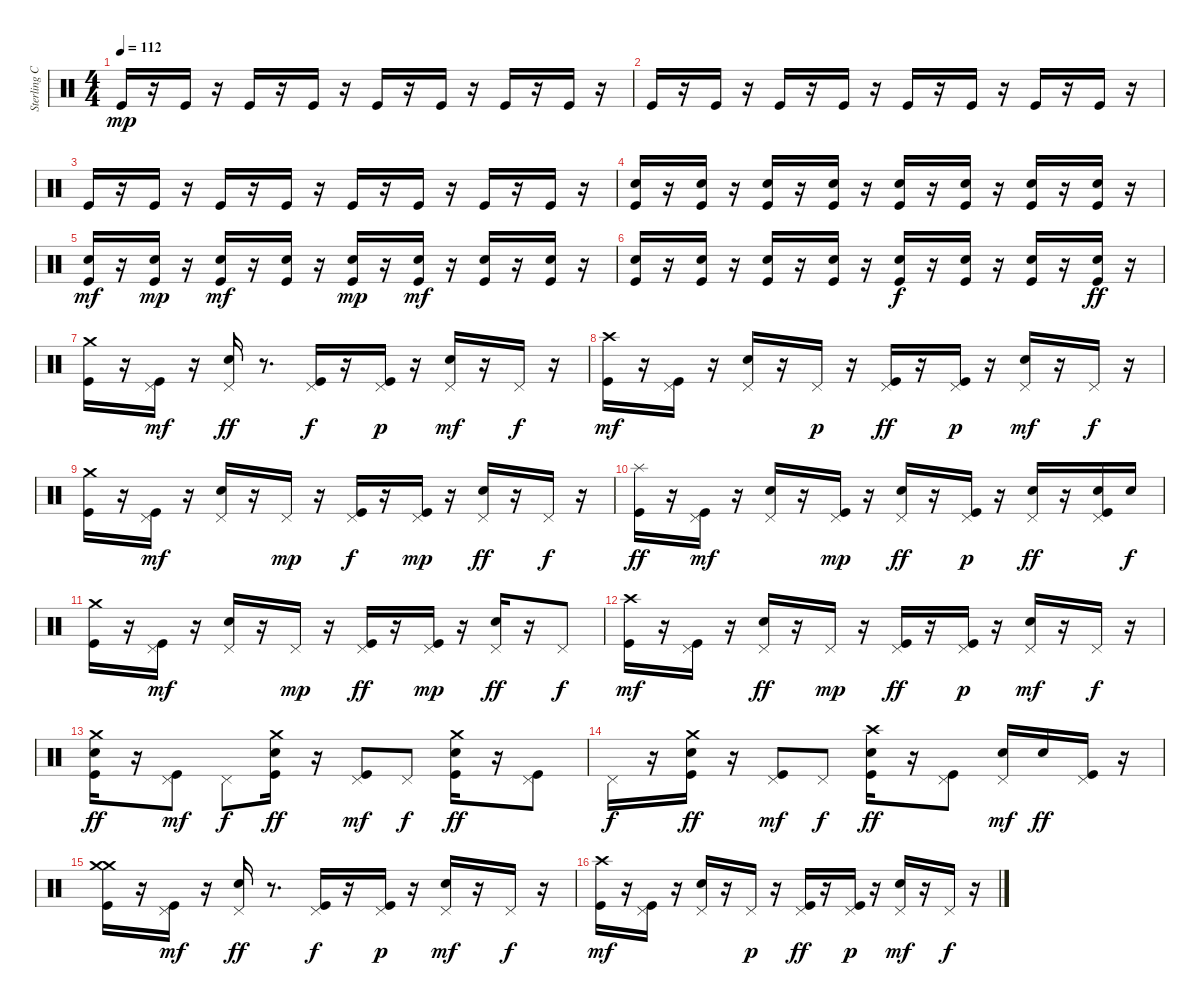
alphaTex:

\track ("Sterling Campbell" "Sterling C") {instrument percussion}
\staff {score}
\articulation defaults
\ts (4 4)
\tempo 112
\clef neutral
\ks c "Kick (hit)".16{dy mp}
r.16 "Kick (hit)".16 r.16 "Kick (hit)".16 r.16 "Kick (hit)".16 r.16 "Kick (hit)".16 r.16 "Kick (hit)".16 r.16 "Kick (hit)".16 r.16 "Kick (hit)".16 r.16 |
"Kick (hit)".16 r.16 "Kick (hit)".16 r.16 "Kick (hit)".16 r.16 "Kick (hit)".16 r.16 "Kick (hit)".16 r.16 "Kick (hit)".16 r.16 "Kick (hit)".16 r.16 "Kick (hit)".16 r.16 |
"Kick (hit)".16 r.16 "Kick (hit)".16 r.16 "Kick (hit)".16 r.16 "Kick (hit)".16 r.16 "Kick (hit)".16 r.16 "Kick (hit)".16 r.16 "Kick (hit)".16 r.16 "Kick (hit)".16 r.16 |
("Electric Snare (hit)" "Kick (hit)").16 r.16 ("Electric Snare (hit)" "Kick (hit)").16 r.16 ("Electric Snare (hit)" "Kick (hit)").16 r.16 ("Electric Snare (hit)" "Kick (hit)").16 r.16 ("Electric Snare (hit)" "Kick (hit)").16 r.16 ("Electric Snare (hit)" "Kick (hit)").16 r.16 ("Electric Snare (hit)" "Kick (hit)").16 r.16 ("Electric Snare (hit)" "Kick (hit)").16 r.16 |
("Electric Snare (hit)" "Kick (hit)").16{dy mf} r.16 ("Electric Snare (hit)" "Kick (hit)").16{dy mp} r.16 ("Electric Snare (hit)" "Kick (hit)").16{dy mf} r.16 ("Electric Snare (hit)" "Kick (hit)").16 r.16 ("Electric Snare (hit)" "Kick (hit)").16{dy mp} r.16 ("Electric Snare (hit)" "Kick (hit)").16{dy mf} r.16 ("Electric Snare (hit)" "Kick (hit)").16 r.16 ("Electric Snare (hit)" "Kick (hit)").16 r.16 |
("Electric Snare (hit)" "Kick (hit)").16 r.16 ("Electric Snare (hit)" "Kick (hit)").16 r.16 ("Electric Snare (hit)" "Kick (hit)").16 r.16 ("Electric Snare (hit)" "Kick (hit)").16 r.16 ("Electric Snare (hit)" "Kick (hit)").16{dy f} r.16 ("Electric Snare (hit)" "Kick (hit)").16 r.16 ("Electric Snare (hit)" "Kick (hit)").16 r.16 ("Electric Snare (hit)" "Kick (hit)").16{dy ff} r.16 |
("Kick (hit)" "Crash medium (hit)").16 r.16 ("Kick (hit)" "Pedal Hi-Hat (hit)").16{dy mf} r.16 ("Electric Snare (hit)" "Pedal Hi-Hat (hit)").16{dy ff} r.8{d} ("Kick (hit)" "Pedal Hi-Hat (hit)").16{dy f} r.16 ("Kick (hit)" "Pedal Hi-Hat (hit)").16{dy p} r.16 ("Electric Snare (hit)" "Pedal Hi-Hat (hit)").16{dy mf} r.16 "Pedal Hi-Hat (hit)".16{dy f} r.16 |
("Kick (hit)" "Crash high (hit)").16{dy mf} r.16 ("Kick (hit)" "Pedal Hi-Hat (hit)").16 r.16 ("Electric Snare (hit)" "Pedal Hi-Hat (hit)").16 r.16 "Pedal Hi-Hat (hit)".16{dy p} r.16 ("Kick (hit)" "Pedal Hi-Hat (hit)").16{dy ff} r.16 ("Kick (hit)" "Pedal Hi-Hat (hit)").16{dy p} r.16 ("Electric Snare (hit)" "Pedal Hi-Hat (hit)").16{dy mf} r.16 "Pedal Hi-Hat (hit)".16{dy f} r.16 |
("Kick (hit)" "Crash medium (hit)").16 r.16 ("Kick (hit)" "Pedal Hi-Hat (hit)").16{dy mf} r.16 ("Electric Snare (hit)" "Pedal Hi-Hat (hit)").16 r.16 "Pedal Hi-Hat (hit)".16{dy mp} r.16 ("Kick (hit)" "Pedal Hi-Hat (hit)").16{dy f} r.16 ("Kick (hit)" "Pedal Hi-Hat (hit)").16{dy mp} r.16 ("Electric Snare (hit)" "Pedal Hi-Hat (hit)").16{dy ff} r.16 "Pedal Hi-Hat (hit)".16{dy f} r.16 |
("Kick (hit)" "Splash (hit)").16{dy ff} r.16 ("Kick (hit)" "Pedal Hi-Hat (hit)").16{dy mf} r.16 ("Electric Snare (hit)" "Pedal Hi-Hat (hit)").16 r.16 ("Kick (hit)" "Pedal Hi-Hat (hit)").16{dy mp} r.16 ("Electric Snare (hit)" "Pedal Hi-Hat (hit)").16{dy ff} r.16 ("Kick (hit)" "Pedal Hi-Hat (hit)").16{dy p} r.16 ("Electric Snare (hit)" "Pedal Hi-Hat (hit)").16{dy ff} r.16 ("Electric Snare (hit)" "Kick (hit)" "Pedal Hi-Hat (hit)").16 "Electric Snare (hit)".16{dy f} |
("Kick (hit)" "Crash medium (hit)").16 r.16 ("Kick (hit)" "Pedal Hi-Hat (hit)").16{dy mf} r.16 ("Electric Snare (hit)" "Pedal Hi-Hat (hit)").16 r.16 "Pedal Hi-Hat (hit)".16{dy mp} r.16 ("Kick (hit)" "Pedal Hi-Hat (hit)").16{dy ff} r.16 ("Kick (hit)" "Pedal Hi-Hat (hit)").16{dy mp} r.16 ("Electric Snare (hit)" "Pedal Hi-Hat (hit)").16{dy ff} r.16 "Pedal Hi-Hat (hit)".8{dy f} |
("Kick (hit)" "Crash high (hit)").16{dy mf} r.16 ("Kick (hit)" "Pedal Hi-Hat (hit)").16 r.16 ("Electric Snare (hit)" "Pedal Hi-Hat (hit)").16{dy ff} r.16 "Pedal Hi-Hat (hit)".16{dy mp} r.16 ("Kick (hit)" "Pedal Hi-Hat (hit)").16{dy ff} r.16 ("Kick (hit)" "Pedal Hi-Hat (hit)").16{dy p} r.16 ("Electric Snare (hit)" "Pedal Hi-Hat (hit)").16{dy mf} r.16 "Pedal Hi-Hat (hit)".16{dy f} r.16 |
("Electric Snare (hit)" "Kick (hit)" "Crash medium (hit)").16{dy ff} r.16 ("Kick (hit)" "Pedal Hi-Hat (hit)").8{dy mf} "Pedal Hi-Hat (hit)".8{dy f} ("Electric Snare (hit)" "Kick (hit)" "Crash medium (hit)").16{dy ff} r.16 ("Kick (hit)" "Pedal Hi-Hat (hit)").8{dy mf} "Pedal Hi-Hat (hit)".8{dy f} ("Electric Snare (hit)" "Kick (hit)" "Crash medium (hit)").16{dy ff} r.16 ("Kick (hit)" "Pedal Hi-Hat (hit)").8 |
"Pedal Hi-Hat (hit)".16{dy f} r.16 ("Electric Snare (hit)" "Kick (hit)" "Crash medium (hit)").16{dy ff} r.16 ("Kick (hit)" "Pedal Hi-Hat (hit)").8{dy mf} "Pedal Hi-Hat (hit)".8{dy f} ("Electric Snare (hit)" "Kick (hit)" "Crash high (hit)").16{dy ff} r.16 ("Kick (hit)" "Pedal Hi-Hat (hit)").8 ("Electric Snare (hit)" "Pedal Hi-Hat (hit)").16{dy mf} "Electric Snare (hit)".16{dy ff} ("Kick (hit)" "Pedal Hi-Hat (hit)").16 r.16 |
("Crash medium (hit)" "Kick (hit)" "Crash medium (hit)").16 r.16 ("Kick (hit)" "Pedal Hi-Hat (hit)").16{dy mf} r.16 ("Electric Snare (hit)" "Pedal Hi-Hat (hit)").16{dy ff} r.8{d} ("Kick (hit)" "Pedal Hi-Hat (hit)").16{dy f} r.16 ("Kick (hit)" "Pedal Hi-Hat (hit)").16{dy p} r.16 ("Electric Snare (hit)" "Pedal Hi-Hat (hit)").16{dy mf} r.16 "Pedal Hi-Hat (hit)".16{dy f} r.16 |
("Kick (hit)" "Crash high (hit)").16{dy mf} r.16 ("Kick (hit)" "Pedal Hi-Hat (hit)").16 r.16 ("Electric Snare (hit)" "Pedal Hi-Hat (hit)").16 r.16 "Pedal Hi-Hat (hit)".16{dy p} r.16 ("Kick (hit)" "Pedal Hi-Hat (hit)").16{dy ff} r.16 ("Kick (hit)" "Pedal Hi-Hat (hit)").16{dy p} r.16 ("Electric Snare (hit)" "Pedal Hi-Hat (hit)").16{dy mf} r.16 "Pedal Hi-Hat (hit)".16{dy f} r.16
